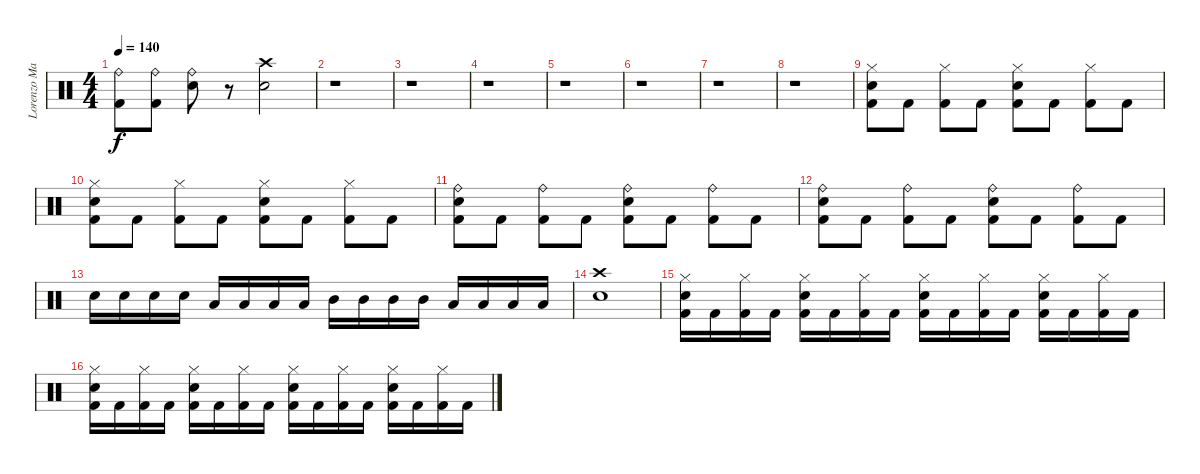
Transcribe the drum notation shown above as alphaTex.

\track ("Lorenzo Marcelloni" "Lorenzo Ma") {instrument percussion}
\staff {score}
\articulation defaults
\ts (4 4)
\tempo 140
\clef neutral
\ks c
("Ride (bell)" "Kick (hit) 2").8{dy f} ("Ride (bell)" "Kick (hit) 2").8 ("Ride (bell)" "Electric Snare (hit)").8 r.8 ("Crash high (hit)" "Electric Snare (hit)").2 |
r.1 |
r.1 |
r.1 |
r.1 |
r.1 |
r.1 |
r.1 |
("Hi-Hat (closed)" "Electric Snare (hit)" "Kick (hit) 2").8 "Kick (hit) 2".8 ("Hi-Hat (closed)" "Kick (hit) 2").8 "Kick (hit) 2".8 ("Hi-Hat (closed)" "Electric Snare (hit)" "Kick (hit) 2").8 "Kick (hit) 2".8 ("Hi-Hat (closed)" "Kick (hit) 2").8 "Kick (hit) 2".8 |
("Hi-Hat (closed)" "Electric Snare (hit)" "Kick (hit) 2").8 "Kick (hit) 2".8 ("Hi-Hat (closed)" "Kick (hit) 2").8 "Kick (hit) 2".8 ("Hi-Hat (closed)" "Electric Snare (hit)" "Kick (hit) 2").8 "Kick (hit) 2".8 ("Hi-Hat (closed)" "Kick (hit) 2").8 "Kick (hit) 2".8 |
("Ride (bell)" "Electric Snare (hit)" "Kick (hit) 2").8 "Kick (hit) 2".8 ("Ride (bell)" "Kick (hit) 2").8 "Kick (hit) 2".8 ("Ride (bell)" "Electric Snare (hit)" "Kick (hit) 2").8 "Kick (hit) 2".8 ("Ride (bell)" "Kick (hit) 2").8 "Kick (hit) 2".8 |
("Ride (bell)" "Electric Snare (hit)" "Kick (hit) 2").8 "Kick (hit) 2".8 ("Ride (bell)" "Kick (hit) 2").8 "Kick (hit) 2".8 ("Ride (bell)" "Electric Snare (hit)" "Kick (hit) 2").8 "Kick (hit) 2".8 ("Ride (bell)" "Kick (hit) 2").8 "Kick (hit) 2".8 |
"Electric Snare (hit)".16 "Electric Snare (hit)".16 "Electric Snare (hit)".16 "Electric Snare (hit)".16 "Low Tom (hit)".16 "Low Tom (hit)".16 "Low Tom (hit)".16 "Low Tom (hit)".16 "Mid Tom (hit)".16 "Mid Tom (hit)".16 "Mid Tom (hit)".16 "Mid Tom (hit)".16 "Low Floor Tom (hit)".16 "Low Floor Tom (hit)".16 "Low Floor Tom (hit)".16 "Low Floor Tom (hit)".16 |
("Crash high (hit)" "Electric Snare (hit)").1 |
("Hi-Hat (closed)" "Electric Snare (hit)" "Kick (hit) 2").16 "Kick (hit) 2".16 ("Hi-Hat (closed)" "Kick (hit) 2").16 "Kick (hit) 2".16 ("Hi-Hat (closed)" "Electric Snare (hit)" "Kick (hit) 2").16 "Kick (hit) 2".16 ("Hi-Hat (closed)" "Kick (hit) 2").16 "Kick (hit) 2".16 ("Hi-Hat (closed)" "Electric Snare (hit)" "Kick (hit) 2").16 "Kick (hit) 2".16 ("Hi-Hat (closed)" "Kick (hit) 2").16 "Kick (hit) 2".16 ("Hi-Hat (closed)" "Electric Snare (hit)" "Kick (hit) 2").16 "Kick (hit) 2".16 ("Hi-Hat (closed)" "Kick (hit) 2").16 "Kick (hit) 2".16 |
("Hi-Hat (closed)" "Electric Snare (hit)" "Kick (hit) 2").16 "Kick (hit) 2".16 ("Hi-Hat (closed)" "Kick (hit) 2").16 "Kick (hit) 2".16 ("Hi-Hat (closed)" "Electric Snare (hit)" "Kick (hit) 2").16 "Kick (hit) 2".16 ("Hi-Hat (closed)" "Kick (hit) 2").16 "Kick (hit) 2".16 ("Hi-Hat (closed)" "Electric Snare (hit)" "Kick (hit) 2").16 "Kick (hit) 2".16 ("Hi-Hat (closed)" "Kick (hit) 2").16 "Kick (hit) 2".16 ("Hi-Hat (closed)" "Electric Snare (hit)" "Kick (hit) 2").16 "Kick (hit) 2".16 ("Hi-Hat (closed)" "Kick (hit) 2").16 "Kick (hit) 2".16
